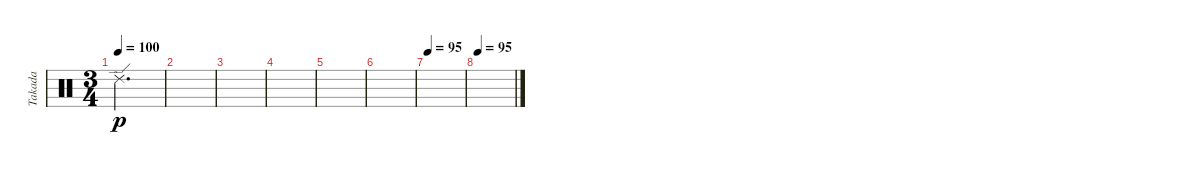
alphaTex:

\track ("Takada" "Takada") {instrument percussion}
\staff {score}
\articulation defaults
\ts (3 4)
\tempo 100
\clef neutral
\ks c "Ride (edge) 2".2{d dy p}
|
|
|
|
|
|
\tempo 95
|
\tempo 95
